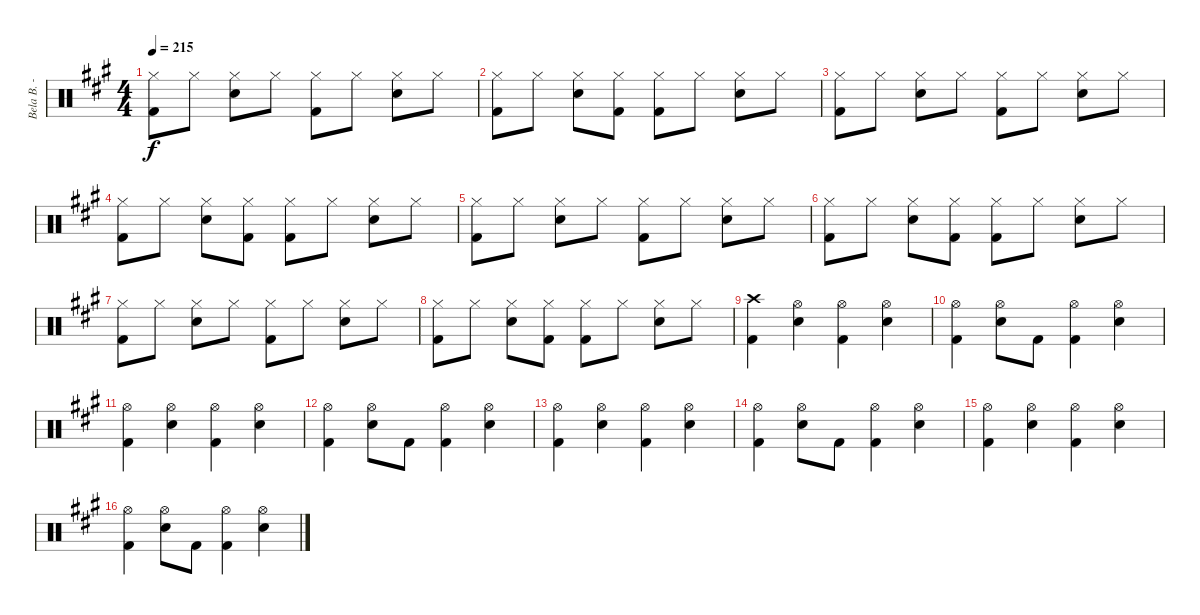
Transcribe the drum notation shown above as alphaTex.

\track ("Bela B. - Schlagzeug" "Bela B. - ") {instrument percussion}
\staff {score}
\articulation defaults
\ts (4 4)
\tempo 215
\clef neutral
\ks a
("Hi-Hat (closed)" "Kick (hit) 2").8{dy f} "Hi-Hat (closed)".8 ("Hi-Hat (closed)" "Snare (hit) 2").8 "Hi-Hat (closed)".8 ("Hi-Hat (closed)" "Kick (hit) 2").8 "Hi-Hat (closed)".8 ("Hi-Hat (closed)" "Snare (hit) 2").8 "Hi-Hat (closed)".8 |
("Hi-Hat (closed)" "Kick (hit) 2").8 "Hi-Hat (closed)".8 ("Hi-Hat (closed)" "Snare (hit) 2").8 ("Hi-Hat (closed)" "Kick (hit) 2").8 ("Hi-Hat (closed)" "Kick (hit) 2").8 "Hi-Hat (closed)".8 ("Hi-Hat (closed)" "Snare (hit) 2").8 "Hi-Hat (closed)".8 |
("Hi-Hat (closed)" "Kick (hit) 2").8 "Hi-Hat (closed)".8 ("Hi-Hat (closed)" "Snare (hit) 2").8 "Hi-Hat (closed)".8 ("Hi-Hat (closed)" "Kick (hit) 2").8 "Hi-Hat (closed)".8 ("Hi-Hat (closed)" "Snare (hit) 2").8 "Hi-Hat (closed)".8 |
("Hi-Hat (closed)" "Kick (hit) 2").8 "Hi-Hat (closed)".8 ("Hi-Hat (closed)" "Snare (hit) 2").8 ("Hi-Hat (closed)" "Kick (hit) 2").8 ("Hi-Hat (closed)" "Kick (hit) 2").8 "Hi-Hat (closed)".8 ("Hi-Hat (closed)" "Snare (hit) 2").8 "Hi-Hat (closed)".8 |
("Hi-Hat (closed)" "Kick (hit) 2").8 "Hi-Hat (closed)".8 ("Hi-Hat (closed)" "Snare (hit) 2").8 "Hi-Hat (closed)".8 ("Hi-Hat (closed)" "Kick (hit) 2").8 "Hi-Hat (closed)".8 ("Hi-Hat (closed)" "Snare (hit) 2").8 "Hi-Hat (closed)".8 |
("Hi-Hat (closed)" "Kick (hit) 2").8 "Hi-Hat (closed)".8 ("Hi-Hat (closed)" "Snare (hit) 2").8 ("Hi-Hat (closed)" "Kick (hit) 2").8 ("Hi-Hat (closed)" "Kick (hit) 2").8 "Hi-Hat (closed)".8 ("Hi-Hat (closed)" "Snare (hit) 2").8 "Hi-Hat (closed)".8 |
("Hi-Hat (closed)" "Kick (hit) 2").8 "Hi-Hat (closed)".8 ("Hi-Hat (closed)" "Snare (hit) 2").8 "Hi-Hat (closed)".8 ("Hi-Hat (closed)" "Kick (hit) 2").8 "Hi-Hat (closed)".8 ("Hi-Hat (closed)" "Snare (hit) 2").8 "Hi-Hat (closed)".8 |
("Hi-Hat (closed)" "Kick (hit) 2").8 "Hi-Hat (closed)".8 ("Hi-Hat (closed)" "Snare (hit) 2").8 ("Hi-Hat (closed)" "Kick (hit) 2").8 ("Hi-Hat (closed)" "Kick (hit) 2").8 "Hi-Hat (closed)".8 ("Hi-Hat (closed)" "Snare (hit) 2").8 "Hi-Hat (closed)".8 |
("Crash high (hit)" "Kick (hit) 2").4 ("Hi-Hat (open)" "Snare (hit) 2").4 ("Hi-Hat (open)" "Kick (hit) 2").4 ("Hi-Hat (open)" "Snare (hit) 2").4 |
("Hi-Hat (open)" "Kick (hit) 2").4 ("Hi-Hat (open)" "Snare (hit) 2").8 "Kick (hit) 2".8 ("Hi-Hat (open)" "Kick (hit) 2").4 ("Hi-Hat (open)" "Snare (hit) 2").4 |
("Hi-Hat (open)" "Kick (hit) 2").4 ("Hi-Hat (open)" "Snare (hit) 2").4 ("Hi-Hat (open)" "Kick (hit) 2").4 ("Hi-Hat (open)" "Snare (hit) 2").4 |
("Hi-Hat (open)" "Kick (hit) 2").4 ("Hi-Hat (open)" "Snare (hit) 2").8 "Kick (hit) 2".8 ("Hi-Hat (open)" "Kick (hit) 2").4 ("Hi-Hat (open)" "Snare (hit) 2").4 |
("Hi-Hat (open)" "Kick (hit) 2").4 ("Hi-Hat (open)" "Snare (hit) 2").4 ("Hi-Hat (open)" "Kick (hit) 2").4 ("Hi-Hat (open)" "Snare (hit) 2").4 |
("Hi-Hat (open)" "Kick (hit) 2").4 ("Hi-Hat (open)" "Snare (hit) 2").8 "Kick (hit) 2".8 ("Hi-Hat (open)" "Kick (hit) 2").4 ("Hi-Hat (open)" "Snare (hit) 2").4 |
("Hi-Hat (open)" "Kick (hit) 2").4 ("Hi-Hat (open)" "Snare (hit) 2").4 ("Hi-Hat (open)" "Kick (hit) 2").4 ("Hi-Hat (open)" "Snare (hit) 2").4 |
("Hi-Hat (open)" "Kick (hit) 2").4 ("Hi-Hat (open)" "Snare (hit) 2").8 "Kick (hit) 2".8 ("Hi-Hat (open)" "Kick (hit) 2").4 ("Hi-Hat (open)" "Snare (hit) 2").4
